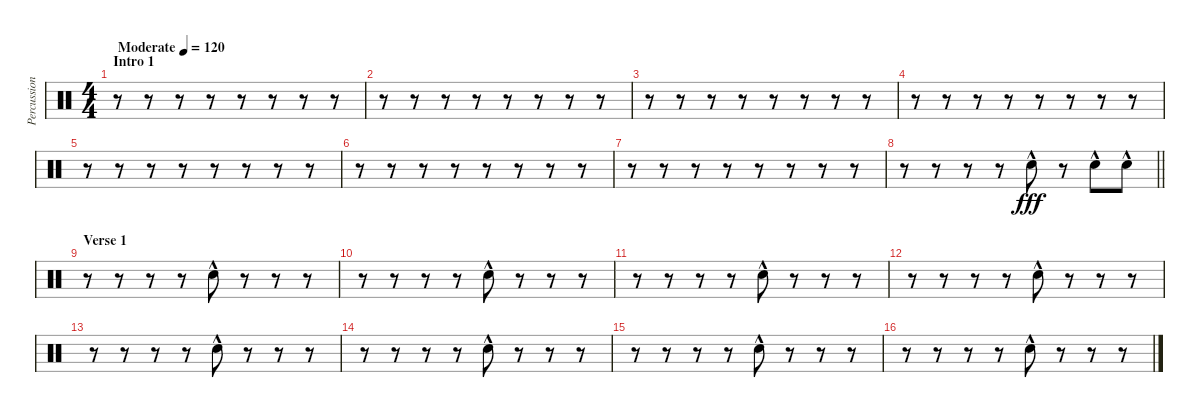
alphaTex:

\track ("Percussion" "Percussion") {instrument percussion}
\staff {score}
\articulation defaults
\ts (4 4)
\section ("" "Intro 1")
\tempo (120 "Moderate")
\tempo 157
\tempo 198
\tempo (120 "Moderate")
\clef neutral
\ks c
r.8{dy fff} r.8 r.8 r.8 r.8 r.8 r.8 r.8 |
r.8 r.8 r.8 r.8 r.8 r.8 r.8 r.8 |
r.8 r.8 r.8 r.8 r.8 r.8 r.8 r.8 |
r.8 r.8 r.8 r.8 r.8 r.8 r.8 r.8 |
r.8 r.8 r.8 r.8 r.8 r.8 r.8 r.8 |
r.8 r.8 r.8 r.8 r.8 r.8 r.8 r.8 |
r.8 r.8 r.8 r.8 r.8 r.8 r.8 r.8 |
\barLineRight lightlight
r.8 r.8 r.8 r.8 "Snare (hit) 2"{hac}.8 r.8 "Snare (hit) 2"{hac}.8 "Snare (hit) 2"{hac}.8 |
\section ("" "Verse 1")
r.8 r.8 r.8 r.8 "Snare (hit) 2"{hac}.8 r.8 r.8 r.8 |
r.8 r.8 r.8 r.8 "Snare (hit) 2"{hac}.8 r.8 r.8 r.8 |
r.8 r.8 r.8 r.8 "Snare (hit) 2"{hac}.8 r.8 r.8 r.8 |
r.8 r.8 r.8 r.8 "Snare (hit) 2"{hac}.8 r.8 r.8 r.8 |
r.8 r.8 r.8 r.8 "Snare (hit) 2"{hac}.8 r.8 r.8 r.8 |
r.8 r.8 r.8 r.8 "Snare (hit) 2"{hac}.8 r.8 r.8 r.8 |
r.8 r.8 r.8 r.8 "Snare (hit) 2"{hac}.8 r.8 r.8 r.8 |
r.8 r.8 r.8 r.8 "Snare (hit) 2"{hac}.8 r.8 r.8 r.8
